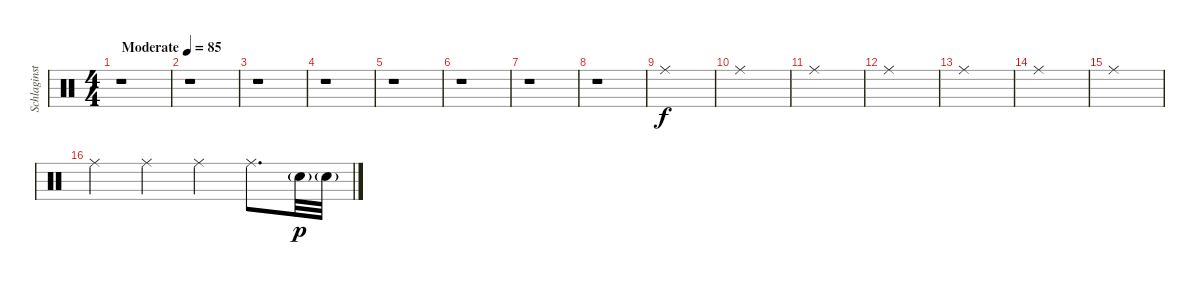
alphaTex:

\track ("Schlaginstrumente - Auswahl" "Schlaginst") {instrument percussion}
\staff {score}
\articulation defaults
\ts (4 4)
\tempo (85 "Moderate")
\clef neutral
\ks c
r.1{dy f} |
r.1 |
r.1 |
r.1 |
r.1 |
r.1 |
r.1 |
r.1 |
"Ride (middle)".1 |
"Ride (middle)".1 |
"Ride (middle)".1 |
"Ride (middle)".1 |
"Ride (middle)".1 |
"Ride (middle)".1 |
"Ride (middle)".1 |
"Ride (middle)".4 "Ride (middle)".4 "Ride (middle)".4 "Ride (middle)".8{d} "Snare (hit) 2"{g}.32{dy p} "Snare (hit) 2"{g}.32
